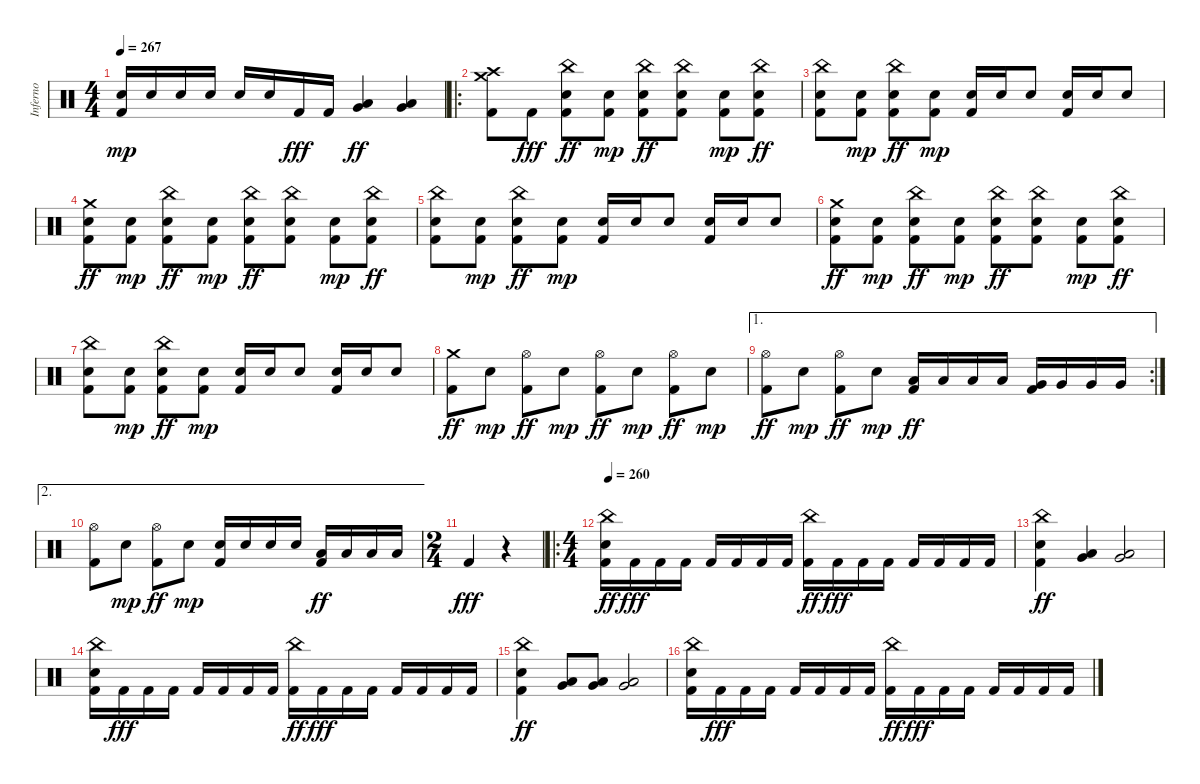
\track ("Inferno" "Inferno") {instrument percussion}
\staff {score}
\articulation defaults
\ts (4 4)
\tempo 267
\clef neutral
\ks c
("Kick (hit) 2" "Electric Snare (hit)").16{dy mp} "Electric Snare (hit)".16 "Electric Snare (hit)".16 "Electric Snare (hit)".16 "Electric Snare (hit)".16 "Electric Snare (hit)".16 "Kick (hit) 2".16{dy fff} "Kick (hit) 2".16 ("Very Low Tom (hit)" "Low Floor Tom (hit)").4{dy ff} ("Very Low Tom (hit)" "Low Floor Tom (hit)").4 |
\ro
("Kick (hit) 2" "Crash medium (hit)" "Crash high (hit)").8 "Kick (hit) 2".8{dy fff} ("Kick (hit) 2" "Electric Snare (hit)" "China (hit)").8{dy ff} ("Kick (hit) 2" "Electric Snare (hit)").8{dy mp} ("Kick (hit) 2" "Electric Snare (hit)" "China (hit)").8{dy ff} ("Kick (hit) 2" "Electric Snare (hit)" "China (hit)").8 ("Kick (hit) 2" "Electric Snare (hit)").8{dy mp} ("Kick (hit) 2" "Electric Snare (hit)" "China (hit)").8{dy ff} |
("Kick (hit) 2" "Electric Snare (hit)" "China (hit)").8 ("Kick (hit) 2" "Electric Snare (hit)").8{dy mp} ("Kick (hit) 2" "Electric Snare (hit)" "China (hit)").8{dy ff} ("Kick (hit) 2" "Electric Snare (hit)").8{dy mp} ("Kick (hit) 2" "Electric Snare (hit)").16 "Electric Snare (hit)".16 "Electric Snare (hit)".8 ("Kick (hit) 2" "Electric Snare (hit)").16 "Electric Snare (hit)".16 "Electric Snare (hit)".8 |
("Kick (hit) 2" "Electric Snare (hit)" "Crash medium (hit)").8{dy ff} ("Kick (hit) 2" "Electric Snare (hit)").8{dy mp} ("Kick (hit) 2" "Electric Snare (hit)" "China (hit)").8{dy ff} ("Kick (hit) 2" "Electric Snare (hit)").8{dy mp} ("Kick (hit) 2" "Electric Snare (hit)" "China (hit)").8{dy ff} ("Kick (hit) 2" "Electric Snare (hit)" "China (hit)").8 ("Kick (hit) 2" "Electric Snare (hit)").8{dy mp} ("Kick (hit) 2" "Electric Snare (hit)" "China (hit)").8{dy ff} |
("Kick (hit) 2" "Electric Snare (hit)" "China (hit)").8 ("Kick (hit) 2" "Electric Snare (hit)").8{dy mp} ("Kick (hit) 2" "Electric Snare (hit)" "China (hit)").8{dy ff} ("Kick (hit) 2" "Electric Snare (hit)").8{dy mp} ("Kick (hit) 2" "Electric Snare (hit)").16 "Electric Snare (hit)".16 "Electric Snare (hit)".8 ("Kick (hit) 2" "Electric Snare (hit)").16 "Electric Snare (hit)".16 "Electric Snare (hit)".8 |
("Kick (hit) 2" "Electric Snare (hit)" "Crash medium (hit)").8{dy ff} ("Kick (hit) 2" "Electric Snare (hit)").8{dy mp} ("Kick (hit) 2" "Electric Snare (hit)" "China (hit)").8{dy ff} ("Kick (hit) 2" "Electric Snare (hit)").8{dy mp} ("Kick (hit) 2" "Electric Snare (hit)" "China (hit)").8{dy ff} ("Kick (hit) 2" "Electric Snare (hit)" "China (hit)").8 ("Kick (hit) 2" "Electric Snare (hit)").8{dy mp} ("Kick (hit) 2" "Electric Snare (hit)" "China (hit)").8{dy ff} |
("Kick (hit) 2" "Electric Snare (hit)" "China (hit)").8 ("Kick (hit) 2" "Electric Snare (hit)").8{dy mp} ("Kick (hit) 2" "Electric Snare (hit)" "China (hit)").8{dy ff} ("Kick (hit) 2" "Electric Snare (hit)").8{dy mp} ("Kick (hit) 2" "Electric Snare (hit)").16 "Electric Snare (hit)".16 "Electric Snare (hit)".8 ("Kick (hit) 2" "Electric Snare (hit)").16 "Electric Snare (hit)".16 "Electric Snare (hit)".8 |
("Kick (hit) 2" "Crash medium (hit)").8{dy ff} "Electric Snare (hit)".8{dy mp} ("Kick (hit) 2" "Hi-Hat (open)").8{dy ff} "Electric Snare (hit)".8{dy mp} ("Kick (hit) 2" "Hi-Hat (open)").8{dy ff} "Electric Snare (hit)".8{dy mp} ("Kick (hit) 2" "Hi-Hat (open)").8{dy ff} "Electric Snare (hit)".8{dy mp} |
\ae 1
\rc 2
("Kick (hit) 2" "Hi-Hat (open)").8{dy ff} "Electric Snare (hit)".8{dy mp} ("Kick (hit) 2" "Hi-Hat (open)").8{dy ff} "Electric Snare (hit)".8{dy mp} ("Kick (hit) 2" "Low Tom (hit)").16{dy ff} "Low Tom (hit)".16 "Low Tom (hit)".16 "Low Tom (hit)".16 ("Kick (hit) 2" "Very Low Tom (hit)").16 "Very Low Tom (hit)".16 "Very Low Tom (hit)".16 "Very Low Tom (hit)".16 |
\ae 2
("Kick (hit) 2" "Hi-Hat (open)").8 "Electric Snare (hit)".8{dy mp} ("Kick (hit) 2" "Hi-Hat (open)").8{dy ff} "Electric Snare (hit)".8{dy mp} ("Kick (hit) 2" "Electric Snare (hit)").16 "Electric Snare (hit)".16 "Electric Snare (hit)".16 "Electric Snare (hit)".16 ("Kick (hit) 2" "Low Tom (hit)").16{dy ff} "Low Tom (hit)".16 "Low Tom (hit)".16 "Low Tom (hit)".16 |
\ts (2 4)
"Kick (hit) 2".4{dy fff} r.4 |
\ro
\ts (4 4)
\tempo 260
("Kick (hit) 2" "Electric Snare (hit)" "China (hit)").16{dy ff} "Kick (hit) 2".16{dy fff} "Kick (hit) 2".16 "Kick (hit) 2".16 "Kick (hit) 2".16 "Kick (hit) 2".16 "Kick (hit) 2".16 "Kick (hit) 2".16 ("Kick (hit) 2" "China (hit)").16{dy ff} "Kick (hit) 2".16{dy fff} "Kick (hit) 2".16 "Kick (hit) 2".16 "Kick (hit) 2".16 "Kick (hit) 2".16 "Kick (hit) 2".16 "Kick (hit) 2".16 |
("Kick (hit) 2" "Electric Snare (hit)" "China (hit)").4{dy ff} ("Low Tom (hit)" "Very Low Tom (hit)").4 ("Low Tom (hit)" "Very Low Tom (hit)").2 |
("Kick (hit) 2" "Electric Snare (hit)" "China (hit)").16 "Kick (hit) 2".16{dy fff} "Kick (hit) 2".16 "Kick (hit) 2".16 "Kick (hit) 2".16 "Kick (hit) 2".16 "Kick (hit) 2".16 "Kick (hit) 2".16 ("Kick (hit) 2" "China (hit)").16{dy ff} "Kick (hit) 2".16{dy fff} "Kick (hit) 2".16 "Kick (hit) 2".16 "Kick (hit) 2".16 "Kick (hit) 2".16 "Kick (hit) 2".16 "Kick (hit) 2".16 |
("Kick (hit) 2" "Electric Snare (hit)" "China (hit)").4{dy ff} ("Low Tom (hit)" "Very Low Tom (hit)").8 ("Low Tom (hit)" "Very Low Tom (hit)").8 ("Low Tom (hit)" "Very Low Tom (hit)").2 |
("Kick (hit) 2" "Electric Snare (hit)" "China (hit)").16 "Kick (hit) 2".16{dy fff} "Kick (hit) 2".16 "Kick (hit) 2".16 "Kick (hit) 2".16 "Kick (hit) 2".16 "Kick (hit) 2".16 "Kick (hit) 2".16 ("Kick (hit) 2" "China (hit)").16{dy ff} "Kick (hit) 2".16{dy fff} "Kick (hit) 2".16 "Kick (hit) 2".16 "Kick (hit) 2".16 "Kick (hit) 2".16 "Kick (hit) 2".16 "Kick (hit) 2".16
